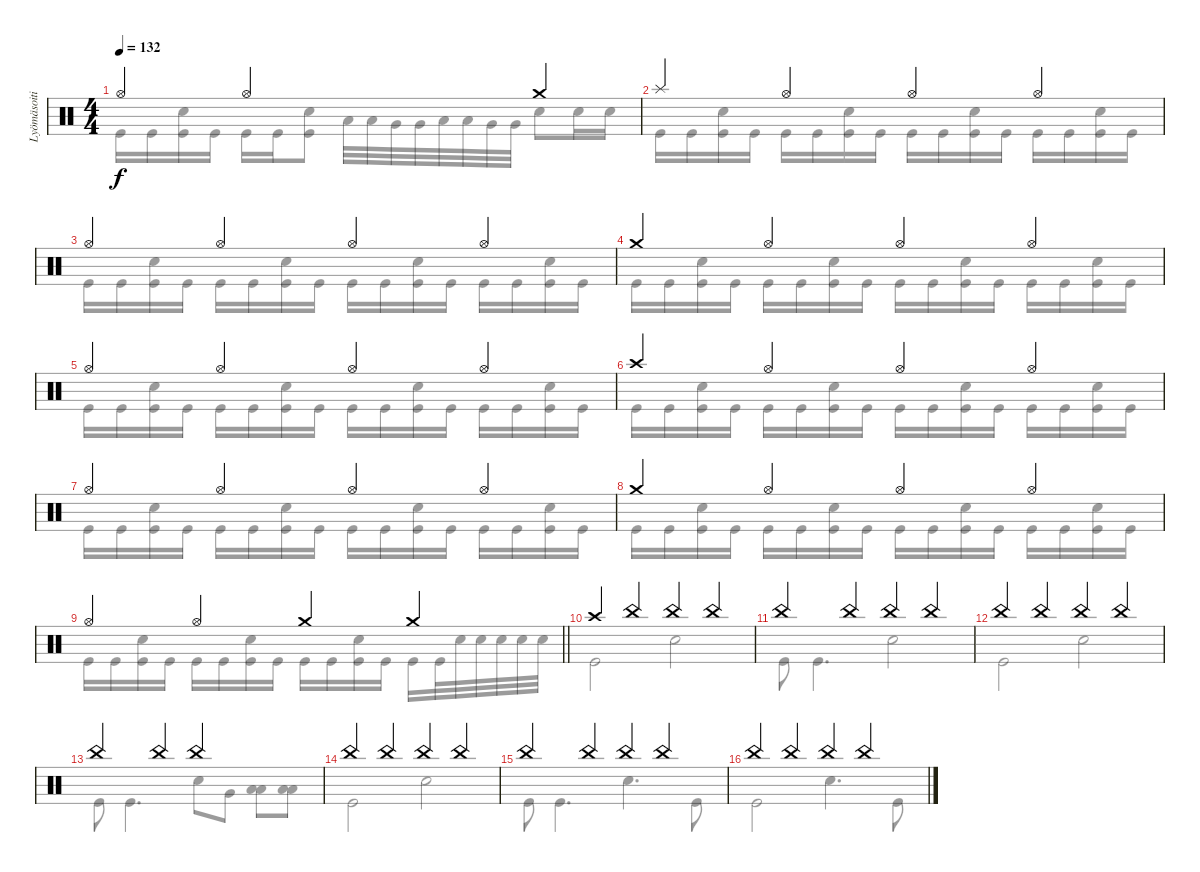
\track ("Lyömäsoitin" "Lyömäsoiti") {instrument percussion}
\staff {score}
\articulation defaults
\voice
\ts (4 4)
\tempo 132
\clef neutral
\ks c "Hi-Hat (open)".4{dy f} "Hi-Hat (open)".2 "Crash medium (hit)".4
|
"Splash (hit)".4 "Hi-Hat (open)".4 "Hi-Hat (open)".4 "Hi-Hat (open)".4 |
"Hi-Hat (open)".4 "Hi-Hat (open)".4 "Hi-Hat (open)".4 "Hi-Hat (open)".4 |
"Crash medium (hit)".4 "Hi-Hat (open)".4 "Hi-Hat (open)".4 "Hi-Hat (open)".4 |
"Hi-Hat (open)".4 "Hi-Hat (open)".4 "Hi-Hat (open)".4 "Hi-Hat (open)".4 |
"Crash high (hit)".4 "Hi-Hat (open)".4 "Hi-Hat (open)".4 "Hi-Hat (open)".4 |
"Hi-Hat (open)".4 "Hi-Hat (open)".4 "Hi-Hat (open)".4 "Hi-Hat (open)".4 |
"Crash medium (hit)".4 "Hi-Hat (open)".4 "Hi-Hat (open)".4 "Hi-Hat (open)".4 |
\barLineRight lightlight "Hi-Hat (open)".4 "Hi-Hat (open)".4 "Crash medium (hit)".4 "Crash medium (hit)".4
|
\section ("" "")
"Crash high (hit)".4 "China (hit)".4 "China (hit)".4 "China (hit)".4 |
"China (hit)".4 "China (hit)".4 "China (hit)".4 "China (hit)".4 |
"China (hit)".4 "China (hit)".4 "China (hit)".4 "China (hit)".4 |
"China (hit)".4 "China (hit)".4 "China (hit)".2 |
"China (hit)".4 "China (hit)".4 "China (hit)".4 "China (hit)".4 |
"China (hit)".4 "China (hit)".4 "China (hit)".4 "China (hit)".4 |
"China (hit)".4 "China (hit)".4 "China (hit)".4 "China (hit)".4
\voice
\clef neutral
\ottava regular
\simile none
\ks c "Kick (hit)".16{dy f} "Kick (hit)".16
("Electric Snare (hit)" "Kick (hit)").16 "Kick (hit)".16 "Kick (hit)".16 "Kick (hit)".16 ("Electric Snare (hit)" "Kick (hit)").8 "Low Tom (hit)".32 "Low Tom (hit)".32 "Very Low Tom (hit)".32 "Very Low Tom (hit)".32 "Low Tom (hit)".32 "Low Tom (hit)".32 "Very Low Tom (hit)".32 "Very Low Tom (hit)".32 "Electric Snare (hit)".8 "Electric Snare (hit)".16 "Electric Snare (hit)".16 |
"Kick (hit)".16 "Kick (hit)".16 ("Electric Snare (hit)" "Kick (hit)").16 "Kick (hit)".16 "Kick (hit)".16 "Kick (hit)".16 ("Electric Snare (hit)" "Kick (hit)").16 "Kick (hit)".16 "Kick (hit)".16 "Kick (hit)".16 ("Electric Snare (hit)" "Kick (hit)").16 "Kick (hit)".16 "Kick (hit)".16 "Kick (hit)".16 ("Electric Snare (hit)" "Kick (hit)").16 "Kick (hit)".16 |
"Kick (hit)".16 "Kick (hit)".16 ("Electric Snare (hit)" "Kick (hit)").16 "Kick (hit)".16 "Kick (hit)".16 "Kick (hit)".16 ("Electric Snare (hit)" "Kick (hit)").16 "Kick (hit)".16 "Kick (hit)".16 "Kick (hit)".16 ("Electric Snare (hit)" "Kick (hit)").16 "Kick (hit)".16 "Kick (hit)".16 "Kick (hit)".16 ("Electric Snare (hit)" "Kick (hit)").16 "Kick (hit)".16 |
"Kick (hit)".16 "Kick (hit)".16 ("Electric Snare (hit)" "Kick (hit)").16 "Kick (hit)".16 "Kick (hit)".16 "Kick (hit)".16 ("Electric Snare (hit)" "Kick (hit)").16 "Kick (hit)".16 "Kick (hit)".16 "Kick (hit)".16 ("Electric Snare (hit)" "Kick (hit)").16 "Kick (hit)".16 "Kick (hit)".16 "Kick (hit)".16 ("Electric Snare (hit)" "Kick (hit)").16 "Kick (hit)".16 |
"Kick (hit)".16 "Kick (hit)".16 ("Electric Snare (hit)" "Kick (hit)").16 "Kick (hit)".16 "Kick (hit)".16 "Kick (hit)".16 ("Electric Snare (hit)" "Kick (hit)").16 "Kick (hit)".16 "Kick (hit)".16 "Kick (hit)".16 ("Electric Snare (hit)" "Kick (hit)").16 "Kick (hit)".16 "Kick (hit)".16 "Kick (hit)".16 ("Electric Snare (hit)" "Kick (hit)").16 "Kick (hit)".16 |
"Kick (hit)".16 "Kick (hit)".16 ("Electric Snare (hit)" "Kick (hit)").16 "Kick (hit)".16 "Kick (hit)".16 "Kick (hit)".16 ("Electric Snare (hit)" "Kick (hit)").16 "Kick (hit)".16 "Kick (hit)".16 "Kick (hit)".16 ("Electric Snare (hit)" "Kick (hit)").16 "Kick (hit)".16 "Kick (hit)".16 "Kick (hit)".16 ("Electric Snare (hit)" "Kick (hit)").16 "Kick (hit)".16 |
"Kick (hit)".16 "Kick (hit)".16 ("Electric Snare (hit)" "Kick (hit)").16 "Kick (hit)".16 "Kick (hit)".16 "Kick (hit)".16 ("Electric Snare (hit)" "Kick (hit)").16 "Kick (hit)".16 "Kick (hit)".16 "Kick (hit)".16 ("Electric Snare (hit)" "Kick (hit)").16 "Kick (hit)".16 "Kick (hit)".16 "Kick (hit)".16 ("Electric Snare (hit)" "Kick (hit)").16 "Kick (hit)".16 |
"Kick (hit)".16 "Kick (hit)".16 ("Electric Snare (hit)" "Kick (hit)").16 "Kick (hit)".16 "Kick (hit)".16 "Kick (hit)".16 ("Electric Snare (hit)" "Kick (hit)").16 "Kick (hit)".16 "Kick (hit)".16 "Kick (hit)".16 ("Electric Snare (hit)" "Kick (hit)").16 "Kick (hit)".16 "Kick (hit)".16 "Kick (hit)".16 ("Electric Snare (hit)" "Kick (hit)").16 "Kick (hit)".16 |
\barLineRight lightlight "Kick (hit)".16 "Kick (hit)".16
("Electric Snare (hit)" "Kick (hit)").16 "Kick (hit)".16 "Kick (hit)".16 "Kick (hit)".16 ("Electric Snare (hit)" "Kick (hit)").16 "Kick (hit)".16 "Kick (hit)".16 "Kick (hit)".16 ("Electric Snare (hit)" "Kick (hit)").16 "Kick (hit)".16 "Kick (hit)".16 "Kick (hit)".32 "Electric Snare (hit)".32 "Electric Snare (hit)".32 "Electric Snare (hit)".32 "Electric Snare (hit)".32 "Electric Snare (hit)".32 |
"Kick (hit)".2 "Electric Snare (hit)".2 |
"Kick (hit)".8 "Kick (hit)".4{d} "Electric Snare (hit)".2 |
"Kick (hit)".2 "Electric Snare (hit)".2 |
"Kick (hit)".8 "Kick (hit)".4{d} "Electric Snare (hit)".8 "Very Low Tom (hit)".8 ("Low Floor Tom (hit)" "Low Floor Tom (hit)").8 ("Low Floor Tom (hit)" "Low Floor Tom (hit)").8 |
"Kick (hit)".2 "Electric Snare (hit)".2 |
"Kick (hit)".8 "Kick (hit)".4{d} "Electric Snare (hit)".4{d} "Kick (hit)".8 |
"Kick (hit)".2 "Electric Snare (hit)".4{d} "Kick (hit)".8
